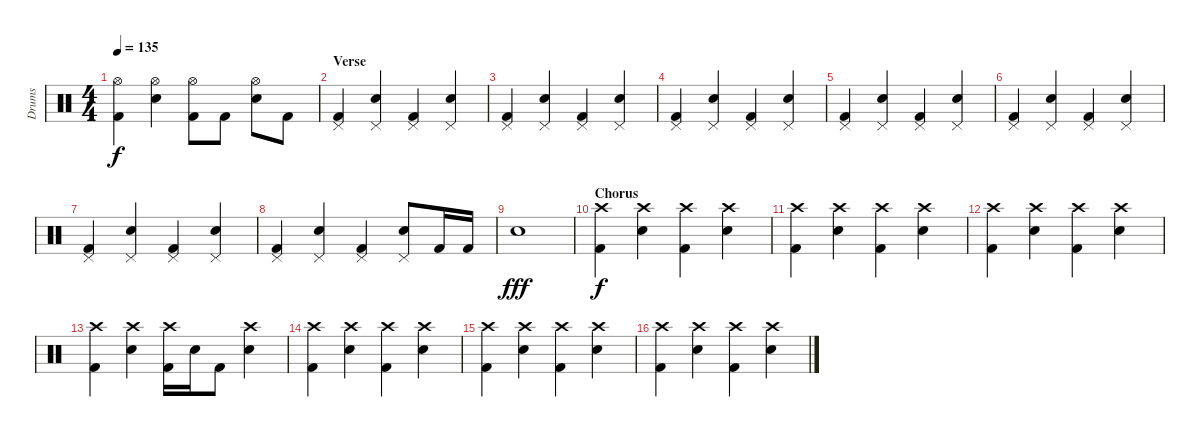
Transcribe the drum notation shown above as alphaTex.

\track ("Drums" "Drums") {instrument percussion}
\staff {score}
\articulation defaults
\ts (4 4)
\tempo 135
\clef neutral
\ks c
("Hi-Hat (open)" "Kick (hit) 2").4{dy f} ("Hi-Hat (open)" "Electric Snare (hit)").4 ("Hi-Hat (open)" "Kick (hit) 2").8 "Kick (hit) 2".8 ("Hi-Hat (open)" "Electric Snare (hit)").8 "Kick (hit) 2".8 |
\section ("" "Verse")
("Pedal Hi-Hat (hit)" "Kick (hit) 2").4 ("Pedal Hi-Hat (hit)" "Electric Snare (hit)").4 ("Pedal Hi-Hat (hit)" "Kick (hit) 2").4 ("Pedal Hi-Hat (hit)" "Electric Snare (hit)").4 |
("Pedal Hi-Hat (hit)" "Kick (hit) 2").4 ("Pedal Hi-Hat (hit)" "Electric Snare (hit)").4 ("Pedal Hi-Hat (hit)" "Kick (hit) 2").4 ("Pedal Hi-Hat (hit)" "Electric Snare (hit)").4 |
("Pedal Hi-Hat (hit)" "Kick (hit) 2").4 ("Pedal Hi-Hat (hit)" "Electric Snare (hit)").4 ("Pedal Hi-Hat (hit)" "Kick (hit) 2").4 ("Pedal Hi-Hat (hit)" "Electric Snare (hit)").4 |
("Pedal Hi-Hat (hit)" "Kick (hit) 2").4 ("Pedal Hi-Hat (hit)" "Electric Snare (hit)").4 ("Pedal Hi-Hat (hit)" "Kick (hit) 2").4 ("Pedal Hi-Hat (hit)" "Electric Snare (hit)").4 |
("Pedal Hi-Hat (hit)" "Kick (hit) 2").4 ("Pedal Hi-Hat (hit)" "Electric Snare (hit)").4 ("Pedal Hi-Hat (hit)" "Kick (hit) 2").4 ("Pedal Hi-Hat (hit)" "Electric Snare (hit)").4 |
("Pedal Hi-Hat (hit)" "Kick (hit) 2").4 ("Pedal Hi-Hat (hit)" "Electric Snare (hit)").4 ("Pedal Hi-Hat (hit)" "Kick (hit) 2").4 ("Pedal Hi-Hat (hit)" "Electric Snare (hit)").4 |
("Pedal Hi-Hat (hit)" "Kick (hit) 2").4 ("Pedal Hi-Hat (hit)" "Electric Snare (hit)").4 ("Pedal Hi-Hat (hit)" "Kick (hit) 2").4 ("Pedal Hi-Hat (hit)" "Electric Snare (hit)").8 "Kick (hit) 2".16 "Kick (hit) 2".16 |
"Electric Snare (hit)".1{dy fff} |
\section ("" "Chorus")
("Crash high (hit)" "Kick (hit) 2").4{dy f} ("Crash high (hit)" "Electric Snare (hit)").4 ("Crash high (hit)" "Kick (hit) 2").4 ("Crash high (hit)" "Electric Snare (hit)").4 |
("Crash high (hit)" "Kick (hit) 2").4 ("Crash high (hit)" "Electric Snare (hit)").4 ("Crash high (hit)" "Kick (hit) 2").4 ("Crash high (hit)" "Electric Snare (hit)").4 |
("Crash high (hit)" "Kick (hit) 2").4 ("Crash high (hit)" "Electric Snare (hit)").4 ("Crash high (hit)" "Kick (hit) 2").4 ("Crash high (hit)" "Electric Snare (hit)").4 |
("Crash high (hit)" "Kick (hit) 2").4 ("Crash high (hit)" "Electric Snare (hit)").4 ("Crash high (hit)" "Kick (hit) 2").16 "Electric Snare (hit)".16 "Kick (hit) 2".8 ("Crash high (hit)" "Electric Snare (hit)").4 |
("Crash high (hit)" "Kick (hit) 2").4 ("Crash high (hit)" "Electric Snare (hit)").4 ("Crash high (hit)" "Kick (hit) 2").4 ("Crash high (hit)" "Electric Snare (hit)").4 |
("Crash high (hit)" "Kick (hit) 2").4 ("Crash high (hit)" "Electric Snare (hit)").4 ("Crash high (hit)" "Kick (hit) 2").4 ("Crash high (hit)" "Electric Snare (hit)").4 |
("Crash high (hit)" "Kick (hit) 2").4 ("Crash high (hit)" "Electric Snare (hit)").4 ("Crash high (hit)" "Kick (hit) 2").4 ("Crash high (hit)" "Electric Snare (hit)").4
